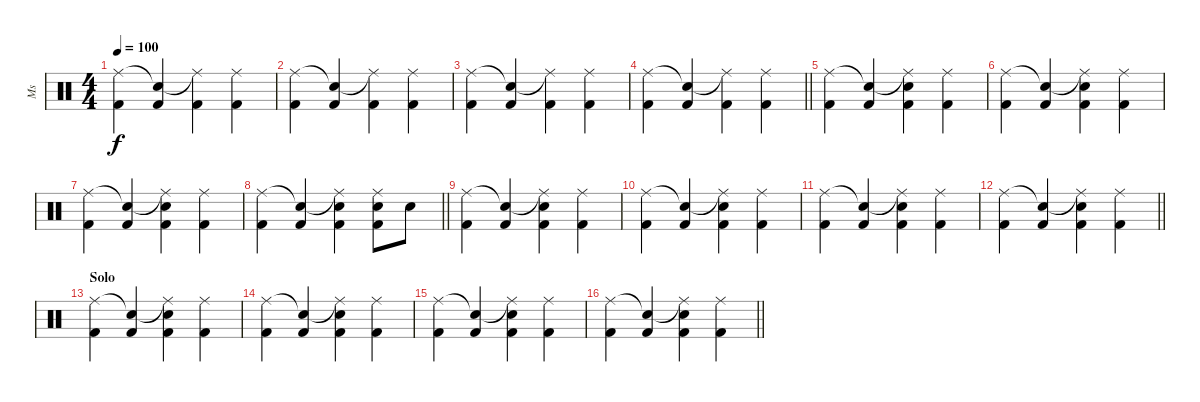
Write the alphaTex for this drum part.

\track ("Ms" "Ms") {instrument percussion}
\staff {score}
\articulation defaults
\ts (4 4)
\tempo 100
\clef neutral
\ks c
("Ride (middle)" "Kick (hit) 2").4{dy f} ("Snare (hit)"{t} "Kick (hit) 2").4 ("Ride (middle)"{t} "Kick (hit) 2").4 ("Ride (middle)" "Kick (hit) 2").4 |
("Ride (middle)" "Kick (hit) 2").4 ("Snare (hit)"{t} "Kick (hit) 2").4 ("Ride (middle)"{t} "Kick (hit) 2").4 ("Ride (middle)" "Kick (hit) 2").4 |
("Ride (middle)" "Kick (hit) 2").4 ("Snare (hit)"{t} "Kick (hit) 2").4 ("Ride (middle)"{t} "Kick (hit) 2").4 ("Ride (middle)" "Kick (hit) 2").4 |
\barLineRight lightlight
("Ride (middle)" "Kick (hit) 2").4 ("Snare (hit)"{t} "Kick (hit) 2").4 ("Ride (middle)"{t} "Kick (hit) 2").4 ("Ride (middle)" "Kick (hit) 2").4 |
("Ride (middle)" "Kick (hit) 2").4 ("Snare (hit)"{t} "Kick (hit) 2").4 ("Ride (middle)"{t} "Electric Snare (hit)" "Kick (hit) 2").4 ("Ride (middle)" "Kick (hit) 2").4 |
("Ride (middle)" "Kick (hit) 2").4 ("Snare (hit)"{t} "Kick (hit) 2").4 ("Ride (middle)"{t} "Electric Snare (hit)" "Kick (hit) 2").4 ("Ride (middle)" "Kick (hit) 2").4 |
("Ride (middle)" "Kick (hit) 2").4 ("Snare (hit)"{t} "Kick (hit) 2").4 ("Ride (middle)"{t} "Electric Snare (hit)" "Kick (hit) 2").4 ("Ride (middle)" "Kick (hit) 2").4 |
\barLineRight lightlight
("Ride (middle)" "Kick (hit) 2").4 ("Snare (hit)"{t} "Kick (hit) 2").4 ("Ride (middle)"{t} "Electric Snare (hit)" "Kick (hit) 2").4 ("Ride (middle)" "Electric Snare (hit)" "Kick (hit) 2").8{volume 16} "Electric Snare (hit)".8 |
("Ride (middle)" "Kick (hit) 2").4{volume 16} ("Snare (hit)"{t} "Kick (hit) 2").4 ("Ride (middle)"{t} "Electric Snare (hit)" "Kick (hit) 2").4 ("Ride (middle)" "Kick (hit) 2").4 |
("Ride (middle)" "Kick (hit) 2").4 ("Snare (hit)"{t} "Kick (hit) 2").4 ("Ride (middle)"{t} "Electric Snare (hit)" "Kick (hit) 2").4 ("Ride (middle)" "Kick (hit) 2").4 |
("Ride (middle)" "Kick (hit) 2").4 ("Snare (hit)"{t} "Kick (hit) 2").4 ("Ride (middle)"{t} "Electric Snare (hit)" "Kick (hit) 2").4 ("Ride (middle)" "Kick (hit) 2").4 |
\barLineRight lightlight
("Ride (middle)" "Kick (hit) 2").4 ("Snare (hit)"{t} "Kick (hit) 2").4 ("Ride (middle)"{t} "Electric Snare (hit)" "Kick (hit) 2").4 ("Ride (middle)" "Kick (hit) 2").4 |
\section ("" "Solo")
("Ride (middle)" "Kick (hit) 2").4 ("Snare (hit)"{t} "Kick (hit) 2").4 ("Ride (middle)"{t} "Electric Snare (hit)" "Kick (hit) 2").4 ("Ride (middle)" "Kick (hit) 2").4 |
("Ride (middle)" "Kick (hit) 2").4 ("Snare (hit)"{t} "Kick (hit) 2").4 ("Ride (middle)"{t} "Electric Snare (hit)" "Kick (hit) 2").4 ("Ride (middle)" "Kick (hit) 2").4 |
("Ride (middle)" "Kick (hit) 2").4 ("Snare (hit)"{t} "Kick (hit) 2").4 ("Ride (middle)"{t} "Electric Snare (hit)" "Kick (hit) 2").4 ("Ride (middle)" "Kick (hit) 2").4 |
\barLineRight lightlight
("Ride (middle)" "Kick (hit) 2").4 ("Snare (hit)"{t} "Kick (hit) 2").4 ("Ride (middle)"{t} "Electric Snare (hit)" "Kick (hit) 2").4 ("Ride (middle)" "Kick (hit) 2").4
